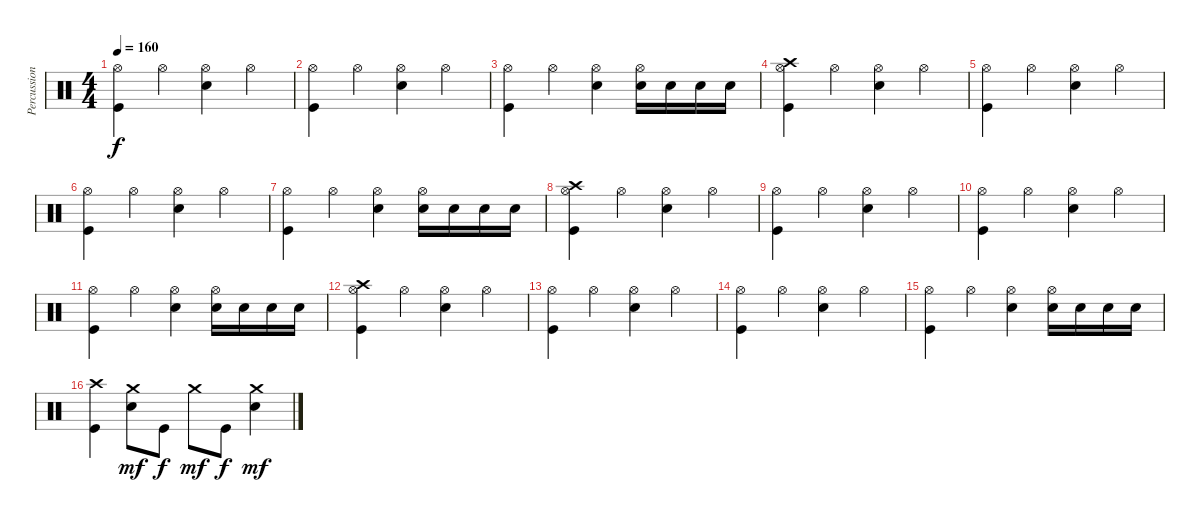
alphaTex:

\track ("Percussion" "Percussion") {instrument percussion}
\staff {score}
\articulation defaults
\ts (4 4)
\tempo 160
\clef neutral
\ks c
("Kick (hit)" "Hi-Hat (open)").4{dy f} "Hi-Hat (open)".4 ("Electric Snare (hit)" "Hi-Hat (open)").4 "Hi-Hat (open)".4 |
("Kick (hit)" "Hi-Hat (open)").4 "Hi-Hat (open)".4 ("Electric Snare (hit)" "Hi-Hat (open)").4 "Hi-Hat (open)".4 |
("Kick (hit)" "Hi-Hat (open)").4 "Hi-Hat (open)".4 ("Electric Snare (hit)" "Hi-Hat (open)").4 ("Electric Snare (hit)" "Hi-Hat (open)").16 "Electric Snare (hit)".16 "Electric Snare (hit)".16 "Electric Snare (hit)".16 |
("Kick (hit)" "Crash high (hit)" "Hi-Hat (open)").4 "Hi-Hat (open)".4 ("Electric Snare (hit)" "Hi-Hat (open)").4 "Hi-Hat (open)".4 |
("Kick (hit)" "Hi-Hat (open)").4 "Hi-Hat (open)".4 ("Electric Snare (hit)" "Hi-Hat (open)").4 "Hi-Hat (open)".4 |
("Kick (hit)" "Hi-Hat (open)").4 "Hi-Hat (open)".4 ("Electric Snare (hit)" "Hi-Hat (open)").4 "Hi-Hat (open)".4 |
("Kick (hit)" "Hi-Hat (open)").4 "Hi-Hat (open)".4 ("Electric Snare (hit)" "Hi-Hat (open)").4 ("Electric Snare (hit)" "Hi-Hat (open)").16 "Electric Snare (hit)".16 "Electric Snare (hit)".16 "Electric Snare (hit)".16 |
("Kick (hit)" "Crash high (hit)" "Hi-Hat (open)").4 "Hi-Hat (open)".4 ("Electric Snare (hit)" "Hi-Hat (open)").4 "Hi-Hat (open)".4 |
("Kick (hit)" "Hi-Hat (open)").4 "Hi-Hat (open)".4 ("Electric Snare (hit)" "Hi-Hat (open)").4 "Hi-Hat (open)".4 |
("Kick (hit)" "Hi-Hat (open)").4 "Hi-Hat (open)".4 ("Electric Snare (hit)" "Hi-Hat (open)").4 "Hi-Hat (open)".4 |
("Kick (hit)" "Hi-Hat (open)").4 "Hi-Hat (open)".4 ("Electric Snare (hit)" "Hi-Hat (open)").4 ("Electric Snare (hit)" "Hi-Hat (open)").16 "Electric Snare (hit)".16 "Electric Snare (hit)".16 "Electric Snare (hit)".16 |
("Kick (hit)" "Crash high (hit)" "Hi-Hat (open)").4 "Hi-Hat (open)".4 ("Electric Snare (hit)" "Hi-Hat (open)").4 "Hi-Hat (open)".4 |
("Kick (hit)" "Hi-Hat (open)").4 "Hi-Hat (open)".4 ("Electric Snare (hit)" "Hi-Hat (open)").4 "Hi-Hat (open)".4 |
("Kick (hit)" "Hi-Hat (open)").4 "Hi-Hat (open)".4 ("Electric Snare (hit)" "Hi-Hat (open)").4 "Hi-Hat (open)".4 |
("Kick (hit)" "Hi-Hat (open)").4 "Hi-Hat (open)".4 ("Electric Snare (hit)" "Hi-Hat (open)").4 ("Electric Snare (hit)" "Hi-Hat (open)").16 "Electric Snare (hit)".16 "Electric Snare (hit)".16 "Electric Snare (hit)".16 |
("Kick (hit)" "Crash high (hit)").4 ("Electric Snare (hit)" "Crash medium (hit)").8{dy mf} "Kick (hit)".8{dy f} "Crash medium (hit)".8{dy mf} "Kick (hit)".8{dy f} ("Electric Snare (hit)" "Crash medium (hit)").4{dy mf}
